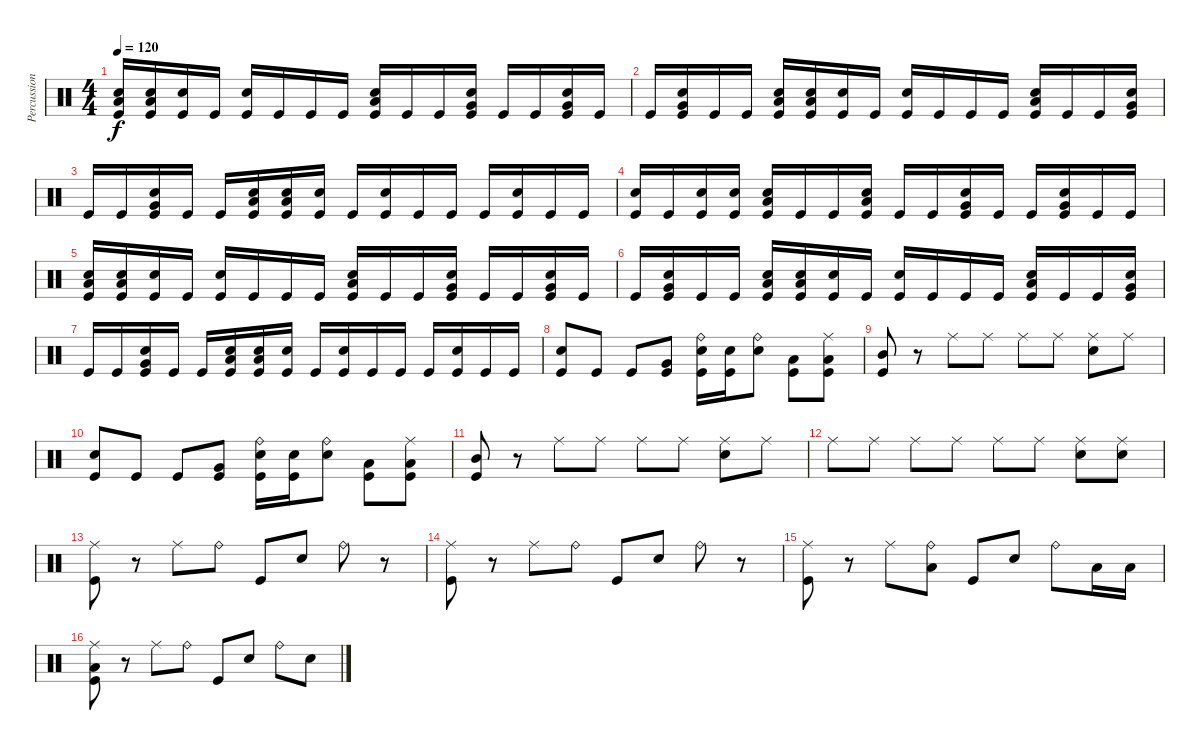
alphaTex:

\track ("Percussion" "Percussion") {instrument percussion}
\staff {score}
\articulation defaults
\ts (4 4)
\tempo 120
\clef neutral
\ks c
("Low Tom (hit)" "Electric Snare (hit)" "Kick (hit)").16{dy f} ("Low Tom (hit)" "Electric Snare (hit)" "Kick (hit)").16 ("Electric Snare (hit)" "Kick (hit)").16 "Kick (hit)".16 ("Electric Snare (hit)" "Kick (hit)").16 "Kick (hit)".16 "Kick (hit)".16 "Kick (hit)".16 ("Low Tom (hit)" "Electric Snare (hit)" "Kick (hit)").16 "Kick (hit)".16 "Kick (hit)".16 ("Very Low Tom (hit)" "Electric Snare (hit)" "Kick (hit)").16 "Kick (hit)".16 "Kick (hit)".16 ("Very Low Tom (hit)" "Electric Snare (hit)" "Kick (hit)").16 "Kick (hit)".16 |
"Kick (hit)".16 ("Very Low Tom (hit)" "Electric Snare (hit)" "Kick (hit)").16 "Kick (hit)".16 "Kick (hit)".16 ("Low Tom (hit)" "Electric Snare (hit)" "Kick (hit)").16 ("Low Tom (hit)" "Electric Snare (hit)" "Kick (hit)").16 ("Electric Snare (hit)" "Kick (hit)").16 "Kick (hit)".16 ("Electric Snare (hit)" "Kick (hit)").16 "Kick (hit)".16 "Kick (hit)".16 "Kick (hit)".16 ("Low Tom (hit)" "Electric Snare (hit)" "Kick (hit)").16 "Kick (hit)".16 "Kick (hit)".16 ("Very Low Tom (hit)" "Electric Snare (hit)" "Kick (hit)").16 |
"Kick (hit)".16 "Kick (hit)".16 ("Very Low Tom (hit)" "Electric Snare (hit)" "Kick (hit)").16 "Kick (hit)".16 "Kick (hit)".16 ("Low Tom (hit)" "Electric Snare (hit)" "Kick (hit)").16 ("Low Tom (hit)" "Electric Snare (hit)" "Kick (hit)").16 ("Electric Snare (hit)" "Kick (hit)").16 "Kick (hit)".16 ("Electric Snare (hit)" "Kick (hit)").16 "Kick (hit)".16 "Kick (hit)".16 "Kick (hit)".16 ("Electric Snare (hit)" "Kick (hit)").16 "Kick (hit)".16 "Kick (hit)".16 |
("Electric Snare (hit)" "Kick (hit)").16 "Kick (hit)".16 ("Electric Snare (hit)" "Kick (hit)").16 ("Electric Snare (hit)" "Kick (hit)").16 ("Low Tom (hit)" "Electric Snare (hit)" "Kick (hit)").16 "Kick (hit)".16 "Kick (hit)".16 ("Low Tom (hit)" "Electric Snare (hit)" "Kick (hit)").16 "Kick (hit)".16 "Kick (hit)".16 ("Very Low Tom (hit)" "Electric Snare (hit)" "Kick (hit)").16 "Kick (hit)".16 "Kick (hit)".16 ("Very Low Tom (hit)" "Electric Snare (hit)" "Kick (hit)").16 "Kick (hit)".16 "Kick (hit)".16 |
("Low Tom (hit)" "Electric Snare (hit)" "Kick (hit)").16 ("Low Tom (hit)" "Electric Snare (hit)" "Kick (hit)").16 ("Electric Snare (hit)" "Kick (hit)").16 "Kick (hit)".16 ("Electric Snare (hit)" "Kick (hit)").16 "Kick (hit)".16 "Kick (hit)".16 "Kick (hit)".16 ("Low Tom (hit)" "Electric Snare (hit)" "Kick (hit)").16 "Kick (hit)".16 "Kick (hit)".16 ("Very Low Tom (hit)" "Electric Snare (hit)" "Kick (hit)").16 "Kick (hit)".16 "Kick (hit)".16 ("Very Low Tom (hit)" "Electric Snare (hit)" "Kick (hit)").16 "Kick (hit)".16 |
"Kick (hit)".16 ("Very Low Tom (hit)" "Electric Snare (hit)" "Kick (hit)").16 "Kick (hit)".16 "Kick (hit)".16 ("Low Tom (hit)" "Electric Snare (hit)" "Kick (hit)").16 ("Low Tom (hit)" "Electric Snare (hit)" "Kick (hit)").16 ("Electric Snare (hit)" "Kick (hit)").16 "Kick (hit)".16 ("Electric Snare (hit)" "Kick (hit)").16 "Kick (hit)".16 "Kick (hit)".16 "Kick (hit)".16 ("Low Tom (hit)" "Electric Snare (hit)" "Kick (hit)").16 "Kick (hit)".16 "Kick (hit)".16 ("Very Low Tom (hit)" "Electric Snare (hit)" "Kick (hit)").16 |
"Kick (hit)".16 "Kick (hit)".16 ("Very Low Tom (hit)" "Electric Snare (hit)" "Kick (hit)").16 "Kick (hit)".16 "Kick (hit)".16 ("Low Tom (hit)" "Electric Snare (hit)" "Kick (hit)").16 ("Low Tom (hit)" "Electric Snare (hit)" "Kick (hit)").16 ("Electric Snare (hit)" "Kick (hit)").16 "Kick (hit)".16 ("Electric Snare (hit)" "Kick (hit)").16 "Kick (hit)".16 "Kick (hit)".16 "Kick (hit)".16 ("Electric Snare (hit)" "Kick (hit)").16 "Kick (hit)".16 "Kick (hit)".16 |
("Electric Snare (hit)" "Kick (hit)").8 "Kick (hit)".8 "Kick (hit)".8 ("Very Low Tom (hit)" "Kick (hit)").8 ("Ride (bell)" "Electric Snare (hit)" "Kick (hit)").16 ("Electric Snare (hit)" "Kick (hit)").16 ("Ride (bell)" "Electric Snare (hit)").8 ("Low Tom (hit)" "Kick (hit)").8 ("Ride (middle)" "Low Tom (hit)" "Kick (hit)").8 |
("Mid Tom (hit)" "Kick (hit)").8 r.8 "Ride (middle)".8 "Ride (middle)".8 "Ride (middle)".8 "Ride (middle)".8 ("Ride (middle)" "Electric Snare (hit)").8 "Ride (middle)".8 |
("Electric Snare (hit)" "Kick (hit)").8 "Kick (hit)".8 "Kick (hit)".8 ("Very Low Tom (hit)" "Kick (hit)").8 ("Ride (bell)" "Electric Snare (hit)" "Kick (hit)").16 ("Electric Snare (hit)" "Kick (hit)").16 ("Ride (bell)" "Electric Snare (hit)").8 ("Low Tom (hit)" "Kick (hit)").8 ("Ride (middle)" "Low Tom (hit)" "Kick (hit)").8 |
("Mid Tom (hit)" "Kick (hit)").8 r.8 "Ride (middle)".8 "Ride (middle)".8 "Ride (middle)".8 "Ride (middle)".8 ("Ride (middle)" "Electric Snare (hit)").8 "Ride (middle)".8 |
"Ride (middle)".8 "Ride (middle)".8 "Ride (middle)".8 "Ride (middle)".8 "Ride (middle)".8 "Ride (middle)".8 ("Ride (middle)" "Electric Snare (hit)").8 ("Ride (middle)" "Electric Snare (hit)").8 |
("Ride (middle)" "Kick (hit)").8 r.8 "Ride (middle)".8 "Ride (bell)".8 "Kick (hit)".8 "Electric Snare (hit)".8 "Ride (bell)".8 r.8 |
("Ride (middle)" "Kick (hit)").8 r.8 "Ride (middle)".8 "Ride (bell)".8 "Kick (hit)".8 "Electric Snare (hit)".8 "Ride (bell)".8 r.8 |
("Ride (middle)" "Kick (hit)").8 r.8 "Ride (middle)".8 ("Ride (bell)" "Low Tom (hit)").8 "Kick (hit)".8 "Electric Snare (hit)".8 "Ride (bell)".8 "Low Tom (hit)".16 "Low Tom (hit)".16 |
("Ride (middle)" "Low Tom (hit)" "Kick (hit)").8 r.8 "Ride (middle)".8 "Ride (bell)".8 "Kick (hit)".8 "Electric Snare (hit)".8 "Ride (bell)".8 "Electric Snare (hit)".8
